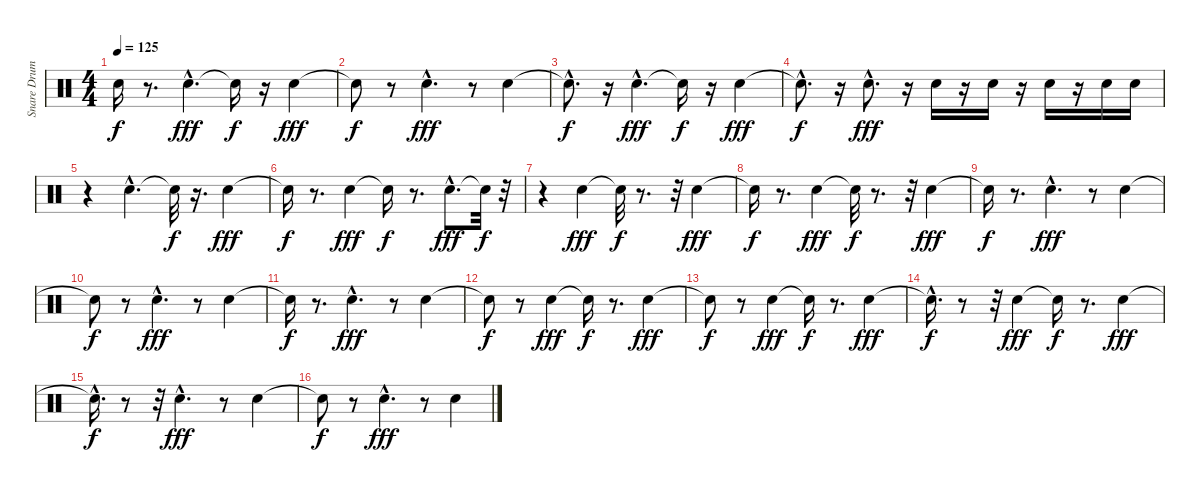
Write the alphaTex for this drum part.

\track ("Snare Drum      " "Snare Drum") {instrument percussion}
\staff {score}
\articulation defaults
\ts (4 4)
\tempo 125
\clef neutral
\ks c "Snare (hit)"{t}.16{dy f}
r.8{d} "Snare (hit) 2"{hac}.4{d dy fff} "Snare (hit)"{t}.16{dy f} r.16 "Snare (hit) 2".4{dy fff} |
"Snare (hit)"{t}.8{dy f} r.8 "Snare (hit) 2"{hac}.4{d dy fff} r.8 "Snare (hit) 2".4 |
"Snare (hit)"{hac t}.8{d dy f} r.16 "Snare (hit) 2"{hac}.4{d dy fff} "Snare (hit)"{t}.16{dy f} r.16 "Snare (hit) 2".4{dy fff} |
"Snare (hit)"{hac t}.8{d dy f} r.16 "Snare (hit) 2"{hac}.8{d dy fff} r.16 "Snare (hit) 2".16 r.16 "Snare (hit) 2".16 r.16 "Snare (hit) 2".16 r.16 "Snare (hit) 2".16 "Snare (hit) 2".16 |
r.4 "Snare (hit) 2"{hac}.4{d} "Snare (hit)"{t}.32{dy f} r.16{d} "Snare (hit) 2".4{dy fff} |
"Snare (hit)"{t}.16{dy f} r.8{d} "Snare (hit) 2".4{dy fff} "Snare (hit)"{t}.16{dy f} r.8{d} "Snare (hit) 2"{hac}.8{d dy fff} "Snare (hit)"{t}.32{dy f} r.32 |
r.4 "Snare (hit) 2".4{dy fff} "Snare (hit)"{t}.32{dy f} r.8{d} r.32 "Snare (hit) 2".4{dy fff} |
"Snare (hit)"{t}.16{dy f} r.8{d} "Snare (hit) 2".4{dy fff} "Snare (hit)"{t}.32{dy f} r.8{d} r.32 "Snare (hit) 2".4{dy fff} |
"Snare (hit)"{t}.16{dy f} r.8{d} "Snare (hit) 2"{hac}.4{d dy fff} r.8 "Snare (hit) 2".4 |
"Snare (hit)"{t}.8{dy f} r.8 "Snare (hit) 2"{hac}.4{d dy fff} r.8 "Snare (hit) 2".4 |
"Snare (hit)"{t}.16{dy f} r.8{d} "Snare (hit) 2"{hac}.4{d dy fff} r.8 "Snare (hit) 2".4 |
"Snare (hit)"{t}.8{dy f} r.8 "Snare (hit) 2".4{dy fff} "Snare (hit)"{t}.16{dy f} r.8{d} "Snare (hit) 2".4{dy fff} |
"Snare (hit)"{t}.8{dy f} r.8 "Snare (hit) 2".4{dy fff} "Snare (hit)"{t}.16{dy f} r.8{d} "Snare (hit) 2".4{dy fff} |
"Snare (hit)"{hac t}.16{d dy f} r.8 r.32 "Snare (hit) 2".4{dy fff} "Snare (hit)"{t}.16{dy f} r.8{d} "Snare (hit) 2".4{dy fff} |
"Snare (hit)"{hac t}.16{d dy f} r.8 r.32 "Snare (hit) 2"{hac}.4{d dy fff} r.8 "Snare (hit) 2".4 |
"Snare (hit)"{t}.8{dy f} r.8 "Snare (hit) 2"{hac}.4{d dy fff} r.8 "Snare (hit) 2".4
